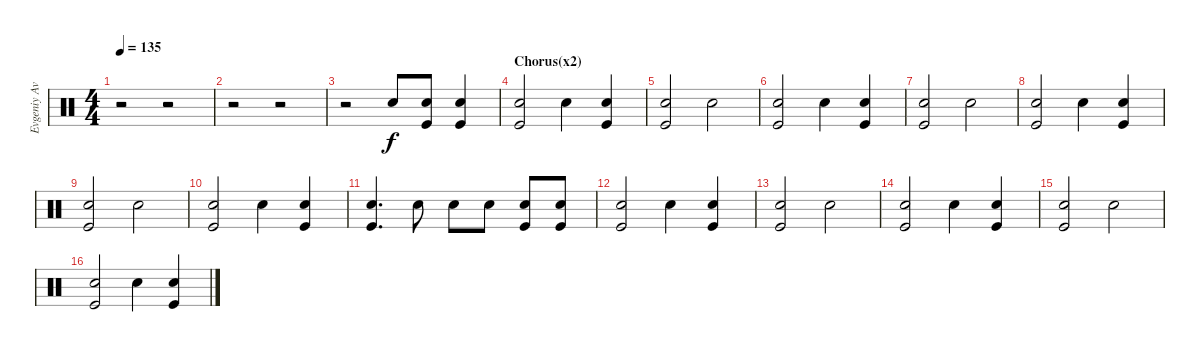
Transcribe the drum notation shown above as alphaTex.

\track ("Evgeniy Avdotin" "Evgeniy Av") {instrument percussion}
\staff {score}
\articulation defaults
\ts (4 4)
\tempo 135
\clef neutral
\ks c
r.2{dy f} r.2 |
r.2 r.2 |
r.2 "Snare (hit) 2".8 ("Snare (hit) 2" "Kick (hit)").8 ("Snare (hit) 2" "Kick (hit)").4 |
\section ("" "Chorus(x2)")
("Snare (hit) 2" "Kick (hit)").2 "Snare (hit) 2".4 ("Snare (hit) 2" "Kick (hit)").4 |
("Snare (hit) 2" "Kick (hit)").2 "Snare (hit) 2".2 |
("Snare (hit) 2" "Kick (hit)").2 "Snare (hit) 2".4 ("Snare (hit) 2" "Kick (hit)").4 |
("Snare (hit) 2" "Kick (hit)").2 "Snare (hit) 2".2 |
("Snare (hit) 2" "Kick (hit)").2 "Snare (hit) 2".4 ("Snare (hit) 2" "Kick (hit)").4 |
("Snare (hit) 2" "Kick (hit)").2 "Snare (hit) 2".2 |
("Snare (hit) 2" "Kick (hit)").2 "Snare (hit) 2".4 ("Snare (hit) 2" "Kick (hit)").4 |
("Snare (hit) 2" "Kick (hit)").4{d} "Snare (hit) 2".8 "Snare (hit) 2".8 "Snare (hit) 2".8 ("Snare (hit) 2" "Kick (hit)").8 ("Snare (hit) 2" "Kick (hit)").8 |
("Snare (hit) 2" "Kick (hit)").2 "Snare (hit) 2".4 ("Snare (hit) 2" "Kick (hit)").4 |
("Snare (hit) 2" "Kick (hit)").2 "Snare (hit) 2".2 |
("Snare (hit) 2" "Kick (hit)").2 "Snare (hit) 2".4 ("Snare (hit) 2" "Kick (hit)").4 |
("Snare (hit) 2" "Kick (hit)").2 "Snare (hit) 2".2 |
("Snare (hit) 2" "Kick (hit)").2 "Snare (hit) 2".4 ("Snare (hit) 2" "Kick (hit)").4
